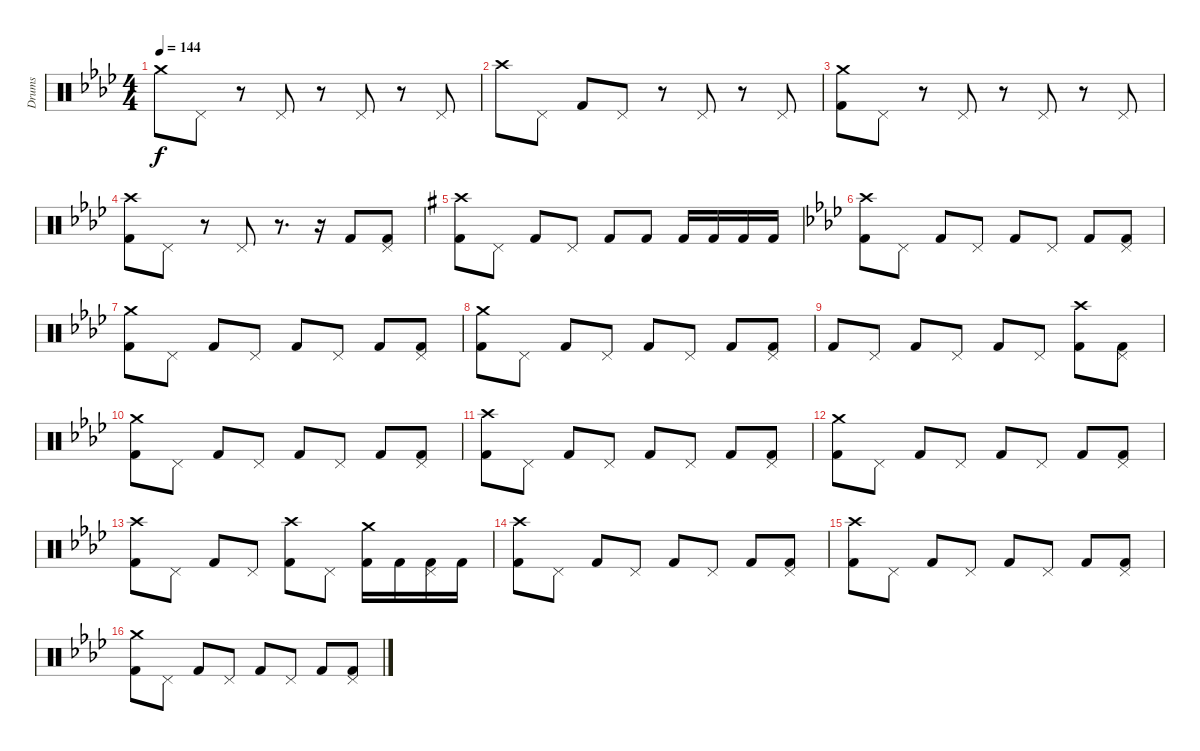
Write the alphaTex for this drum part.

\track ("Drums" "Drums") {instrument percussion}
\staff {score}
\articulation defaults
\ts (4 4)
\tempo 144
\clef neutral
\ks ab "Crash medium (hit)".8{dy f} "Pedal Hi-Hat (hit)".8
r.8 "Pedal Hi-Hat (hit)".8 r.8 "Pedal Hi-Hat (hit)".8 r.8 "Pedal Hi-Hat (hit)".8 |
"Crash high (hit)".8 "Pedal Hi-Hat (hit)".8 "Kick (hit) 2".8 "Pedal Hi-Hat (hit)".8 r.8 "Pedal Hi-Hat (hit)".8 r.8 "Pedal Hi-Hat (hit)".8 |
("Kick (hit) 2" "Crash medium (hit)").8 "Pedal Hi-Hat (hit)".8 r.8 "Pedal Hi-Hat (hit)".8 r.8 "Pedal Hi-Hat (hit)".8 r.8 "Pedal Hi-Hat (hit)".8 |
("Kick (hit) 2" "Crash high (hit)").8 "Pedal Hi-Hat (hit)".8 r.8 "Pedal Hi-Hat (hit)".8 r.8{d} r.16 "Kick (hit) 2".8 ("Kick (hit) 2" "Pedal Hi-Hat (hit)").8 |
\ks g
("Kick (hit) 2" "Crash high (hit)").8 "Pedal Hi-Hat (hit)".8 "Kick (hit) 2".8 "Pedal Hi-Hat (hit)".8 "Kick (hit) 2".8 "Kick (hit) 2".8 "Kick (hit) 2".16 "Kick (hit) 2".16 "Kick (hit) 2".16 "Kick (hit) 2".16 |
\ks ab
("Kick (hit) 2" "Crash high (hit)").8 "Pedal Hi-Hat (hit)".8 "Kick (hit) 2".8 "Pedal Hi-Hat (hit)".8 "Kick (hit) 2".8 "Pedal Hi-Hat (hit)".8 "Kick (hit) 2".8 ("Kick (hit) 2" "Pedal Hi-Hat (hit)").8 |
("Kick (hit) 2" "Crash medium (hit)").8 "Pedal Hi-Hat (hit)".8 "Kick (hit) 2".8 "Pedal Hi-Hat (hit)".8 "Kick (hit) 2".8 "Pedal Hi-Hat (hit)".8 "Kick (hit) 2".8 ("Kick (hit) 2" "Pedal Hi-Hat (hit)").8 |
("Kick (hit) 2" "Crash medium (hit)").8 "Pedal Hi-Hat (hit)".8 "Kick (hit) 2".8 "Pedal Hi-Hat (hit)".8 "Kick (hit) 2".8 "Pedal Hi-Hat (hit)".8 "Kick (hit) 2".8 ("Kick (hit) 2" "Pedal Hi-Hat (hit)").8 |
"Kick (hit) 2".8 "Pedal Hi-Hat (hit)".8 "Kick (hit) 2".8 "Pedal Hi-Hat (hit)".8 "Kick (hit) 2".8 "Pedal Hi-Hat (hit)".8 ("Kick (hit) 2" "Crash high (hit)").8 ("Kick (hit) 2" "Pedal Hi-Hat (hit)").8 |
("Kick (hit) 2" "Crash medium (hit)").8 "Pedal Hi-Hat (hit)".8 "Kick (hit) 2".8 "Pedal Hi-Hat (hit)".8 "Kick (hit) 2".8 "Pedal Hi-Hat (hit)".8 "Kick (hit) 2".8 ("Kick (hit) 2" "Pedal Hi-Hat (hit)").8 |
("Kick (hit) 2" "Crash high (hit)").8 "Pedal Hi-Hat (hit)".8 "Kick (hit) 2".8 "Pedal Hi-Hat (hit)".8 "Kick (hit) 2".8 "Pedal Hi-Hat (hit)".8 "Kick (hit) 2".8 ("Kick (hit) 2" "Pedal Hi-Hat (hit)").8 |
("Kick (hit) 2" "Crash medium (hit)").8 "Pedal Hi-Hat (hit)".8 "Kick (hit) 2".8 "Pedal Hi-Hat (hit)".8 "Kick (hit) 2".8 "Pedal Hi-Hat (hit)".8 "Kick (hit) 2".8 ("Kick (hit) 2" "Pedal Hi-Hat (hit)").8 |
("Kick (hit) 2" "Crash high (hit)").8 "Pedal Hi-Hat (hit)".8 "Kick (hit) 2".8 "Pedal Hi-Hat (hit)".8 ("Kick (hit) 2" "Crash high (hit)").8 "Pedal Hi-Hat (hit)".8 ("Kick (hit) 2" "Crash medium (hit)").16 "Kick (hit) 2".16 ("Kick (hit) 2" "Pedal Hi-Hat (hit)").16 "Kick (hit) 2".16 |
("Kick (hit) 2" "Crash high (hit)").8 "Pedal Hi-Hat (hit)".8 "Kick (hit) 2".8 "Pedal Hi-Hat (hit)".8 "Kick (hit) 2".8 "Pedal Hi-Hat (hit)".8 "Kick (hit) 2".8 ("Kick (hit) 2" "Pedal Hi-Hat (hit)").8 |
("Kick (hit) 2" "Crash high (hit)").8 "Pedal Hi-Hat (hit)".8 "Kick (hit) 2".8 "Pedal Hi-Hat (hit)".8 "Kick (hit) 2".8 "Pedal Hi-Hat (hit)".8 "Kick (hit) 2".8 ("Kick (hit) 2" "Pedal Hi-Hat (hit)").8 |
("Kick (hit) 2" "Crash medium (hit)").8 "Pedal Hi-Hat (hit)".8 "Kick (hit) 2".8 "Pedal Hi-Hat (hit)".8 "Kick (hit) 2".8 "Pedal Hi-Hat (hit)".8 "Kick (hit) 2".8 ("Kick (hit) 2" "Pedal Hi-Hat (hit)").8
